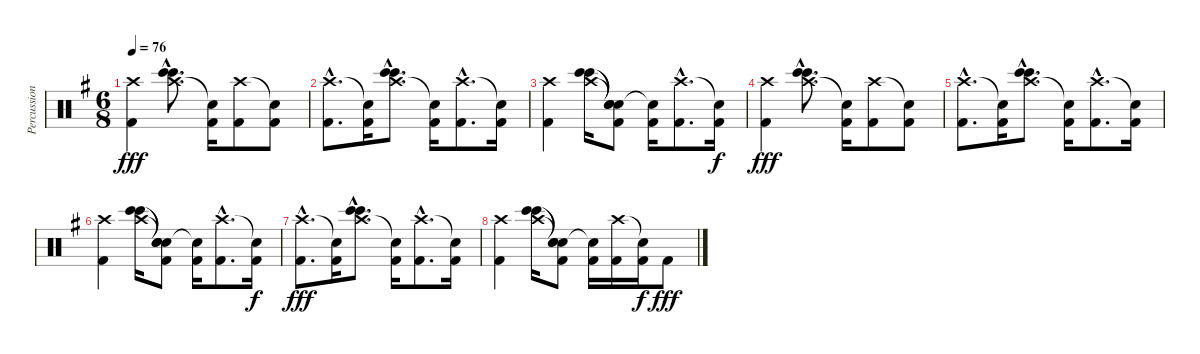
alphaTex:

\track ("Percussions 1" "Percussion") {instrument percussion}
\staff {score}
\articulation defaults
\ts (6 8)
\tempo 76
\clef neutral
\ks g
("Crash high (hit)" "Kick (hit) 2").4{dy fff} ("Crash high (hit)"{hac} "Bongo High (hit)"{hac} "Bongo High (hit)"{hac}).8{d} ("Snare (hit)"{t} "Kick (hit) 2").16 ("Crash high (hit)" "Kick (hit) 2").8 ("Snare (hit)"{t} "Kick (hit) 2").8 |
("Crash high (hit)"{hac} "Kick (hit) 2"{hac}).8{d} ("Snare (hit)"{t} "Kick (hit) 2").16 ("Crash high (hit)"{hac} "Bongo High (hit)"{hac} "Bongo High (hit)"{hac}).8{d} ("Snare (hit)"{t} "Kick (hit) 2").16 ("Crash high (hit)"{hac} "Kick (hit) 2"{hac}).8{d} ("Snare (hit)"{t} "Kick (hit) 2").16 |
("Crash high (hit)" "Kick (hit) 2").4 ("Crash high (hit)" "Bongo High (hit)" "Bongo High (hit)").16 ("Snare (hit)"{t} "Snare (hit)"{t} "Snare (hit)"{t} "Kick (hit) 2").8 ("Snare (hit)"{t} "Kick (hit) 2").16 ("Crash high (hit)"{hac} "Kick (hit) 2"{hac}).8{d} ("Snare (hit)"{t} "Kick (hit) 2").16{dy f} |
("Crash high (hit)" "Kick (hit) 2").4{dy fff} ("Crash high (hit)"{hac} "Bongo High (hit)"{hac} "Bongo High (hit)"{hac}).8{d} ("Snare (hit)"{t} "Kick (hit) 2").16 ("Crash high (hit)" "Kick (hit) 2").8 ("Snare (hit)"{t} "Kick (hit) 2").8 |
("Crash high (hit)"{hac} "Kick (hit) 2"{hac}).8{d} ("Snare (hit)"{t} "Kick (hit) 2").16 ("Crash high (hit)"{hac} "Bongo High (hit)"{hac} "Bongo High (hit)"{hac}).8{d} ("Snare (hit)"{t} "Kick (hit) 2").16 ("Crash high (hit)"{hac} "Kick (hit) 2"{hac}).8{d} ("Snare (hit)"{t} "Kick (hit) 2").16 |
("Crash high (hit)" "Kick (hit) 2").4 ("Crash high (hit)" "Bongo High (hit)" "Bongo High (hit)").16 ("Snare (hit)"{t} "Snare (hit)"{t} "Snare (hit)"{t} "Kick (hit) 2").8 ("Snare (hit)"{t} "Kick (hit) 2").16 ("Crash high (hit)"{hac} "Kick (hit) 2"{hac}).8{d} ("Snare (hit)"{t} "Kick (hit) 2").16{dy f} |
("Crash high (hit)"{hac} "Kick (hit) 2"{hac}).8{d dy fff} ("Snare (hit)"{t} "Kick (hit) 2").16 ("Crash high (hit)"{hac} "Bongo High (hit)"{hac} "Bongo High (hit)"{hac}).8{d} ("Snare (hit)"{t} "Kick (hit) 2").16 ("Crash high (hit)"{hac} "Kick (hit) 2"{hac}).8{d} ("Snare (hit)"{t} "Kick (hit) 2").16 |
("Crash high (hit)" "Kick (hit) 2").4 ("Crash high (hit)" "Bongo High (hit)" "Bongo High (hit)").16 ("Snare (hit)"{t} "Snare (hit)"{t} "Snare (hit)"{t} "Kick (hit) 2").8 ("Snare (hit)"{t} "Kick (hit) 2").16 ("Crash high (hit)" "Kick (hit) 2").16 ("Snare (hit)"{t} "Kick (hit) 2").16{dy f} "Kick (hit) 2".8{dy fff}
